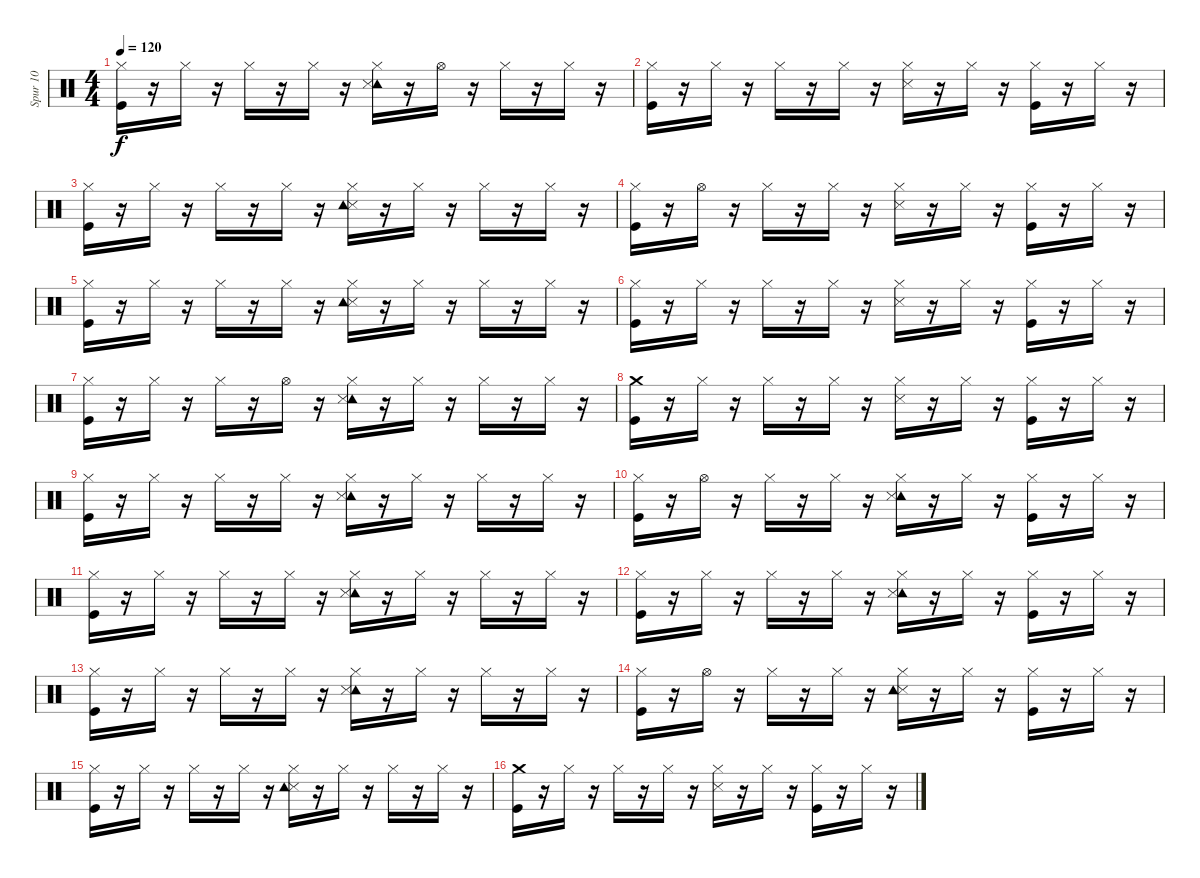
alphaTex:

\track ("Spur 10" "Spur 10") {instrument percussion}
\staff {score}
\articulation defaults
\ts (4 4)
\tempo 120
\clef neutral
\ks c
("Kick (hit)" "Hi-Hat (closed)").16{dy f} r.16 "Hi-Hat (closed)".16 r.16 "Hi-Hat (closed)".16 r.16 "Hi-Hat (closed)".16 r.16 ("Tambourine (hit)" "Snare (side stick) 3" "Hi-Hat (closed)").16 r.16 "Hi-Hat (open)".16 r.16 "Hi-Hat (closed)".16 r.16 "Hi-Hat (closed)".16 r.16 |
("Kick (hit)" "Hi-Hat (closed)").16 r.16 "Hi-Hat (closed)".16 r.16 "Hi-Hat (closed)".16 r.16 "Hi-Hat (closed)".16 r.16 ("Snare (side stick) 3" "Hi-Hat (closed)").16 r.16 "Hi-Hat (closed)".16 r.16 ("Kick (hit)" "Hi-Hat (closed)").16 r.16 "Hi-Hat (closed)".16 r.16 |
("Kick (hit)" "Hi-Hat (closed)").16 r.16 "Hi-Hat (closed)".16 r.16 "Hi-Hat (closed)".16 r.16 "Hi-Hat (closed)".16 r.16 ("Snare (side stick) 3" "Tambourine (hit)" "Hi-Hat (closed)").16 r.16 "Hi-Hat (closed)".16 r.16 "Hi-Hat (closed)".16 r.16 "Hi-Hat (closed)".16 r.16 |
("Kick (hit)" "Hi-Hat (closed)").16 r.16 "Hi-Hat (open)".16 r.16 "Hi-Hat (closed)".16 r.16 "Hi-Hat (closed)".16 r.16 ("Snare (side stick) 3" "Hi-Hat (closed)").16 r.16 "Hi-Hat (closed)".16 r.16 ("Kick (hit)" "Hi-Hat (closed)").16 r.16 "Hi-Hat (closed)".16 r.16 |
("Kick (hit)" "Hi-Hat (closed)").16 r.16 "Hi-Hat (closed)".16 r.16 "Hi-Hat (closed)".16 r.16 "Hi-Hat (closed)".16 r.16 ("Snare (side stick) 3" "Tambourine (hit)" "Hi-Hat (closed)").16 r.16 "Hi-Hat (closed)".16 r.16 "Hi-Hat (closed)".16 r.16 "Hi-Hat (closed)".16 r.16 |
("Kick (hit)" "Hi-Hat (closed)").16 r.16 "Hi-Hat (closed)".16 r.16 "Hi-Hat (closed)".16 r.16 "Hi-Hat (closed)".16 r.16 ("Snare (side stick) 3" "Hi-Hat (closed)").16 r.16 "Hi-Hat (closed)".16 r.16 ("Kick (hit)" "Hi-Hat (closed)").16 r.16 "Hi-Hat (closed)".16 r.16 |
("Kick (hit)" "Hi-Hat (closed)").16 r.16 "Hi-Hat (closed)".16 r.16 "Hi-Hat (closed)".16 r.16 "Hi-Hat (open)".16 r.16 ("Tambourine (hit)" "Snare (side stick) 3" "Hi-Hat (closed)").16 r.16 "Hi-Hat (closed)".16 r.16 "Hi-Hat (closed)".16 r.16 "Hi-Hat (closed)".16 r.16 |
("Kick (hit)" "Crash medium (hit)").16 r.16 "Hi-Hat (closed)".16 r.16 "Hi-Hat (closed)".16 r.16 "Hi-Hat (closed)".16 r.16 ("Snare (side stick) 3" "Hi-Hat (closed)").16 r.16 "Hi-Hat (closed)".16 r.16 ("Kick (hit)" "Hi-Hat (closed)").16 r.16 "Hi-Hat (closed)".16 r.16 |
("Kick (hit)" "Hi-Hat (closed)").16 r.16 "Hi-Hat (closed)".16 r.16 "Hi-Hat (closed)".16 r.16 "Hi-Hat (closed)".16 r.16 ("Tambourine (hit)" "Snare (side stick) 3" "Hi-Hat (closed)").16 r.16 "Hi-Hat (closed)".16 r.16 "Hi-Hat (closed)".16 r.16 "Hi-Hat (closed)".16 r.16 |
("Kick (hit)" "Hi-Hat (closed)").16 r.16 "Hi-Hat (open)".16 r.16 "Hi-Hat (closed)".16 r.16 "Hi-Hat (closed)".16 r.16 ("Tambourine (hit)" "Snare (side stick) 3" "Hi-Hat (closed)").16 r.16 "Hi-Hat (closed)".16 r.16 ("Kick (hit)" "Hi-Hat (closed)").16 r.16 "Hi-Hat (closed)".16 r.16 |
("Kick (hit)" "Hi-Hat (closed)").16 r.16 "Hi-Hat (closed)".16 r.16 "Hi-Hat (closed)".16 r.16 "Hi-Hat (closed)".16 r.16 ("Tambourine (hit)" "Snare (side stick) 3" "Hi-Hat (closed)").16 r.16 "Hi-Hat (closed)".16 r.16 "Hi-Hat (closed)".16 r.16 "Hi-Hat (closed)".16 r.16 |
("Kick (hit)" "Hi-Hat (closed)").16 r.16 "Hi-Hat (closed)".16 r.16 "Hi-Hat (closed)".16 r.16 "Hi-Hat (closed)".16 r.16 ("Tambourine (hit)" "Snare (side stick) 3" "Hi-Hat (closed)").16 r.16 "Hi-Hat (closed)".16 r.16 ("Kick (hit)" "Hi-Hat (closed)").16 r.16 "Hi-Hat (closed)".16 r.16 |
("Kick (hit)" "Hi-Hat (closed)").16 r.16 "Hi-Hat (closed)".16 r.16 "Hi-Hat (closed)".16 r.16 "Hi-Hat (closed)".16 r.16 ("Tambourine (hit)" "Snare (side stick) 3" "Hi-Hat (closed)").16 r.16 "Hi-Hat (closed)".16 r.16 "Hi-Hat (closed)".16 r.16 "Hi-Hat (closed)".16 r.16 |
("Kick (hit)" "Hi-Hat (closed)").16 r.16 "Hi-Hat (open)".16 r.16 "Hi-Hat (closed)".16 r.16 "Hi-Hat (closed)".16 r.16 ("Snare (side stick) 3" "Tambourine (hit)" "Hi-Hat (closed)").16 r.16 "Hi-Hat (closed)".16 r.16 ("Kick (hit)" "Hi-Hat (closed)").16 r.16 "Hi-Hat (closed)".16 r.16 |
("Kick (hit)" "Hi-Hat (closed)").16 r.16 "Hi-Hat (closed)".16 r.16 "Hi-Hat (closed)".16 r.16 "Hi-Hat (closed)".16 r.16 ("Snare (side stick) 3" "Tambourine (hit)" "Hi-Hat (closed)").16 r.16 "Hi-Hat (closed)".16 r.16 "Hi-Hat (closed)".16 r.16 "Hi-Hat (closed)".16 r.16 |
("Crash medium (hit)" "Kick (hit)").16 r.16 "Hi-Hat (closed)".16 r.16 "Hi-Hat (closed)".16 r.16 "Hi-Hat (closed)".16 r.16 ("Snare (side stick) 3" "Hi-Hat (closed)").16 r.16 "Hi-Hat (closed)".16 r.16 ("Kick (hit)" "Hi-Hat (closed)").16 r.16 "Hi-Hat (closed)".16 r.16
